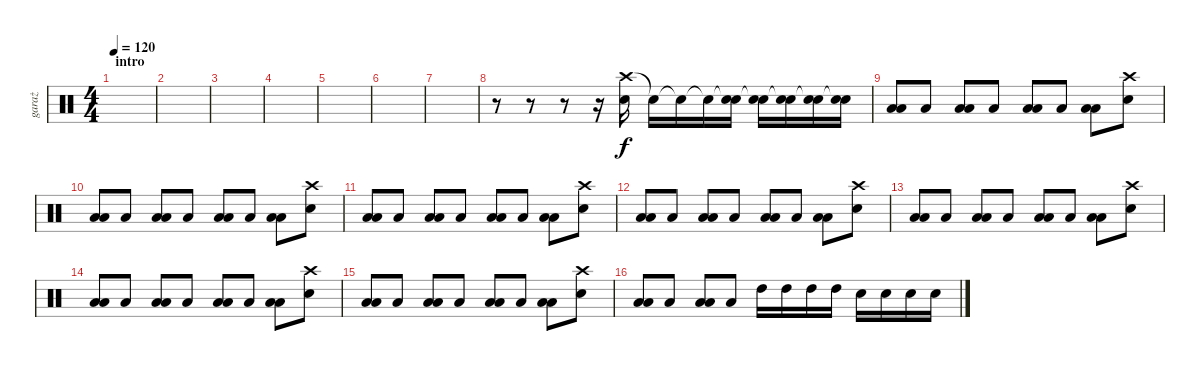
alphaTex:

\track ("garaż" "garaż") {instrument percussion}
\staff {score}
\articulation defaults
\ts (4 4)
\section ("" "intro")
\tempo 120
\clef neutral
\ks c
|
|
|
|
|
|
|
r.8 r.8 r.8 r.16 ("Crash high (hit)" "Snare (hit) 2").16 "Snare (hit)"{t}.16 "Snare (hit)"{t}.16 "Snare (hit)"{t}.16 ("Snare (hit)"{t} "Snare (hit) 2").16 ("Snare (hit)"{t} "Snare (hit) 2").16 ("Snare (hit)"{t} "Snare (hit) 2").16 ("Snare (hit)"{t} "Snare (hit) 2").16 ("Snare (hit)"{t} "Snare (hit) 2").16 |
("Low Tom (hit)" "Low Tom (hit)").8 "Low Floor Tom (hit)".8 ("Low Tom (hit)" "Low Tom (hit)").8 "Low Floor Tom (hit)".8 ("Low Tom (hit)" "Low Tom (hit)").8 "Low Floor Tom (hit)".8 ("Low Tom (hit)" "Low Tom (hit)").8 ("Crash high (hit)" "Snare (hit) 2").8 |
("Low Tom (hit)" "Low Tom (hit)").8 "Low Floor Tom (hit)".8 ("Low Tom (hit)" "Low Tom (hit)").8 "Low Floor Tom (hit)".8 ("Low Tom (hit)" "Low Tom (hit)").8 "Low Floor Tom (hit)".8 ("Low Tom (hit)" "Low Tom (hit)").8 ("Crash high (hit)" "Snare (hit) 2").8 |
("Low Tom (hit)" "Low Tom (hit)").8 "Low Floor Tom (hit)".8 ("Low Tom (hit)" "Low Tom (hit)").8 "Low Floor Tom (hit)".8 ("Low Tom (hit)" "Low Tom (hit)").8 "Low Floor Tom (hit)".8 ("Low Tom (hit)" "Low Tom (hit)").8 ("Crash high (hit)" "Snare (hit) 2").8 |
("Low Tom (hit)" "Low Tom (hit)").8 "Low Floor Tom (hit)".8 ("Low Tom (hit)" "Low Tom (hit)").8 "Low Floor Tom (hit)".8 ("Low Tom (hit)" "Low Tom (hit)").8 "Low Floor Tom (hit)".8 ("Low Tom (hit)" "Low Tom (hit)").8 ("Crash high (hit)" "Snare (hit) 2").8 |
("Low Tom (hit)" "Low Tom (hit)").8 "Low Floor Tom (hit)".8 ("Low Tom (hit)" "Low Tom (hit)").8 "Low Floor Tom (hit)".8 ("Low Tom (hit)" "Low Tom (hit)").8 "Low Floor Tom (hit)".8 ("Low Tom (hit)" "Low Tom (hit)").8 ("Crash high (hit)" "Snare (hit) 2").8 |
("Low Tom (hit)" "Low Tom (hit)").8 "Low Floor Tom (hit)".8 ("Low Tom (hit)" "Low Tom (hit)").8 "Low Floor Tom (hit)".8 ("Low Tom (hit)" "Low Tom (hit)").8 "Low Floor Tom (hit)".8 ("Low Tom (hit)" "Low Tom (hit)").8 ("Crash high (hit)" "Snare (hit) 2").8 |
("Low Tom (hit)" "Low Tom (hit)").8 "Low Floor Tom (hit)".8 ("Low Tom (hit)" "Low Tom (hit)").8 "Low Floor Tom (hit)".8 ("Low Tom (hit)" "Low Tom (hit)").8 "Low Floor Tom (hit)".8 ("Low Tom (hit)" "Low Tom (hit)").8 ("Crash high (hit)" "Snare (hit) 2").8 |
("Low Tom (hit)" "Low Tom (hit)").8 "Low Floor Tom (hit)".8 ("Low Tom (hit)" "Low Tom (hit)").8 "Low Floor Tom (hit)".8 "High Tom (hit)".16 "High Tom (hit)".16 "High Tom (hit)".16 "High Tom (hit)".16 "Snare (hit) 2".16 "Snare (hit) 2".16 "Snare (hit) 2".16 "Snare (hit) 2".16
